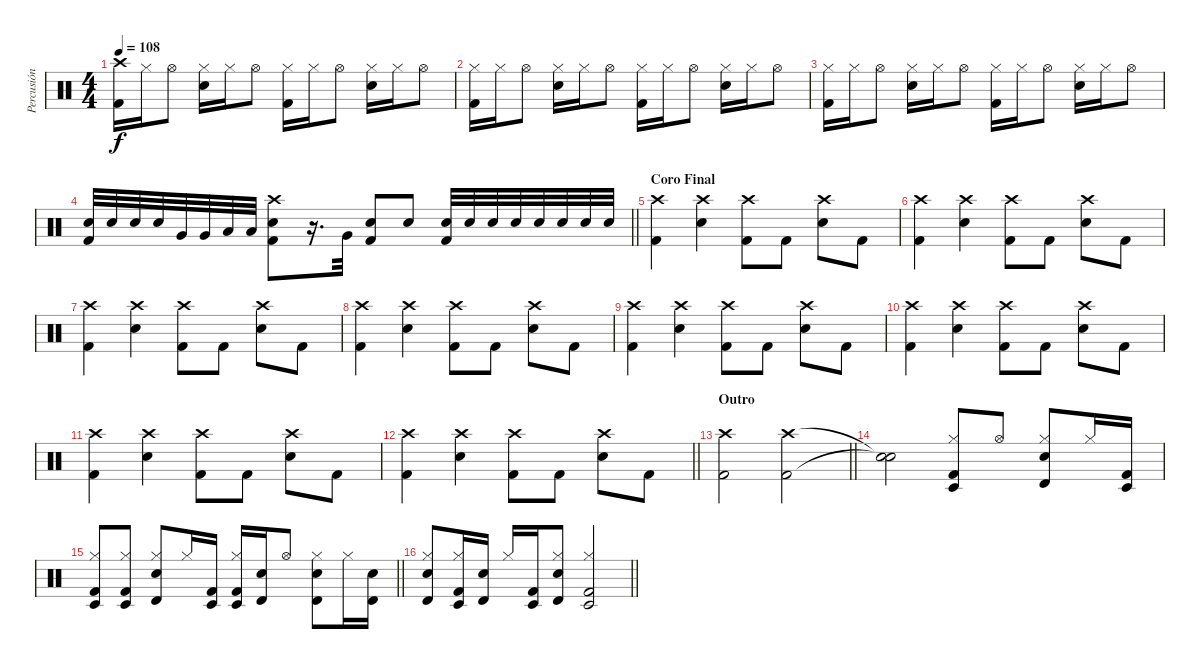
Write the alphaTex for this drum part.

\track ("Percusión" "Percusión") {instrument percussion}
\staff {score}
\articulation defaults
\ts (4 4)
\tempo 108
\clef neutral
\ks c
("Crash high (hit)" "Kick (hit) 2").16{dy f} "Hi-Hat (closed)".16 "Hi-Hat (open)".8 ("Hi-Hat (closed)" "Electric Snare (hit)").16 "Hi-Hat (closed)".16 "Hi-Hat (open)".8 ("Hi-Hat (closed)" "Kick (hit) 2").16 "Hi-Hat (closed)".16 "Hi-Hat (open)".8 ("Hi-Hat (closed)" "Electric Snare (hit)").16 "Hi-Hat (closed)".16 "Hi-Hat (open)".8 |
("Hi-Hat (closed)" "Kick (hit) 2").16 "Hi-Hat (closed)".16 "Hi-Hat (open)".8 ("Hi-Hat (closed)" "Electric Snare (hit)").16 "Hi-Hat (closed)".16 "Hi-Hat (open)".8 ("Hi-Hat (closed)" "Kick (hit) 2").16 "Hi-Hat (closed)".16 "Hi-Hat (open)".8 ("Hi-Hat (closed)" "Electric Snare (hit)").16 "Hi-Hat (closed)".16 "Hi-Hat (open)".8 |
("Hi-Hat (closed)" "Kick (hit) 2").16 "Hi-Hat (closed)".16 "Hi-Hat (open)".8 ("Hi-Hat (closed)" "Electric Snare (hit)").16 "Hi-Hat (closed)".16 "Hi-Hat (open)".8 ("Hi-Hat (closed)" "Kick (hit) 2").16 "Hi-Hat (closed)".16 "Hi-Hat (open)".8 ("Hi-Hat (closed)" "Electric Snare (hit)").16 "Hi-Hat (closed)".16 "Hi-Hat (open)".8 |
\barLineRight lightlight
("Electric Snare (hit)" "Kick (hit) 2").32 "Electric Snare (hit)".32 "Electric Snare (hit)".32 "Electric Snare (hit)".32 "Very Low Tom (hit)".32 "Very Low Tom (hit)".32 "Low Tom (hit)".32 "Low Tom (hit)".32 ("Electric Snare (hit)" "Crash high (hit)" "Kick (hit) 2").8 r.16{d} "Very Low Tom (hit)".32 ("Electric Snare (hit)" "Kick (hit) 2").8 "Electric Snare (hit)".8 ("Electric Snare (hit)" "Kick (hit) 2").32 "Electric Snare (hit)".32 "Electric Snare (hit)".32 "Electric Snare (hit)".32 "Electric Snare (hit)".32 "Electric Snare (hit)".32 "Electric Snare (hit)".32 "Electric Snare (hit)".32 |
\section ("" "Coro Final")
("Crash high (hit)" "Kick (hit) 2").4 ("Crash high (hit)" "Electric Snare (hit)").4 ("Crash high (hit)" "Kick (hit) 2").8 "Kick (hit) 2".8 ("Crash high (hit)" "Electric Snare (hit)").8 "Kick (hit) 2".8 |
("Crash high (hit)" "Kick (hit) 2").4 ("Crash high (hit)" "Electric Snare (hit)").4 ("Crash high (hit)" "Kick (hit) 2").8 "Kick (hit) 2".8 ("Crash high (hit)" "Electric Snare (hit)").8 "Kick (hit) 2".8 |
("Crash high (hit)" "Kick (hit) 2").4 ("Crash high (hit)" "Electric Snare (hit)").4 ("Crash high (hit)" "Kick (hit) 2").8 "Kick (hit) 2".8 ("Crash high (hit)" "Electric Snare (hit)").8 "Kick (hit) 2".8 |
("Crash high (hit)" "Kick (hit) 2").4 ("Crash high (hit)" "Electric Snare (hit)").4 ("Crash high (hit)" "Kick (hit) 2").8 "Kick (hit) 2".8 ("Crash high (hit)" "Electric Snare (hit)").8 "Kick (hit) 2".8 |
("Crash high (hit)" "Kick (hit) 2").4 ("Crash high (hit)" "Electric Snare (hit)").4 ("Crash high (hit)" "Kick (hit) 2").8 "Kick (hit) 2".8 ("Crash high (hit)" "Electric Snare (hit)").8 "Kick (hit) 2".8 |
("Crash high (hit)" "Kick (hit) 2").4 ("Crash high (hit)" "Electric Snare (hit)").4 ("Crash high (hit)" "Kick (hit) 2").8 "Kick (hit) 2".8 ("Crash high (hit)" "Electric Snare (hit)").8 "Kick (hit) 2".8 |
("Crash high (hit)" "Kick (hit) 2").4 ("Crash high (hit)" "Electric Snare (hit)").4 ("Crash high (hit)" "Kick (hit) 2").8 "Kick (hit) 2".8 ("Crash high (hit)" "Electric Snare (hit)").8 "Kick (hit) 2".8 |
\barLineRight lightlight
("Crash high (hit)" "Kick (hit) 2").4 ("Crash high (hit)" "Electric Snare (hit)").4 ("Crash high (hit)" "Kick (hit) 2").8 "Kick (hit) 2".8 ("Crash high (hit)" "Electric Snare (hit)").8 "Kick (hit) 2".8 |
\section ("" "Outro")
\barLineRight lightlight
("Crash high (hit)" "Kick (hit) 2").2 ("Crash high (hit)" "Kick (hit) 2").2 |
("Snare (hit)"{t} "Snare (hit)"{t}).2 ("Hi-Hat (closed)" "Kick (hit) 2" "Timbale low (hit)").8 "Hi-Hat (open)".8 ("Hi-Hat (closed)" "Electric Snare (hit)" "Timbale high (hit)").8 "Hi-Hat (closed)".16 ("Kick (hit) 2" "Timbale low (hit)").16 |
\barLineRight lightlight
("Hi-Hat (closed)" "Kick (hit) 2" "Timbale low (hit)").8 ("Hi-Hat (closed)" "Kick (hit) 2" "Timbale low (hit)").8 ("Hi-Hat (closed)" "Electric Snare (hit)" "Timbale high (hit)").8 "Hi-Hat (closed)".16 ("Kick (hit) 2" "Timbale low (hit)").16 ("Hi-Hat (closed)" "Kick (hit) 2" "Timbale low (hit)").16 ("Electric Snare (hit)" "Timbale high (hit)").16 "Hi-Hat (open)".8 ("Hi-Hat (closed)" "Electric Snare (hit)" "Timbale high (hit)").8 "Hi-Hat (closed)".16 ("Electric Snare (hit)" "Timbale high (hit)").16 |
\barLineRight lightlight
("Hi-Hat (closed)" "Electric Snare (hit)" "Timbale high (hit)").8 ("Hi-Hat (closed)" "Kick (hit) 2" "Timbale low (hit)").16 ("Electric Snare (hit)" "Timbale high (hit)").16 "Hi-Hat (closed)".16 ("Kick (hit) 2" "Timbale low (hit)").16 ("Hi-Hat (closed)" "Electric Snare (hit)" "Timbale high (hit)").8 ("Hi-Hat (closed)" "Kick (hit) 2" "Timbale low (hit)").2
